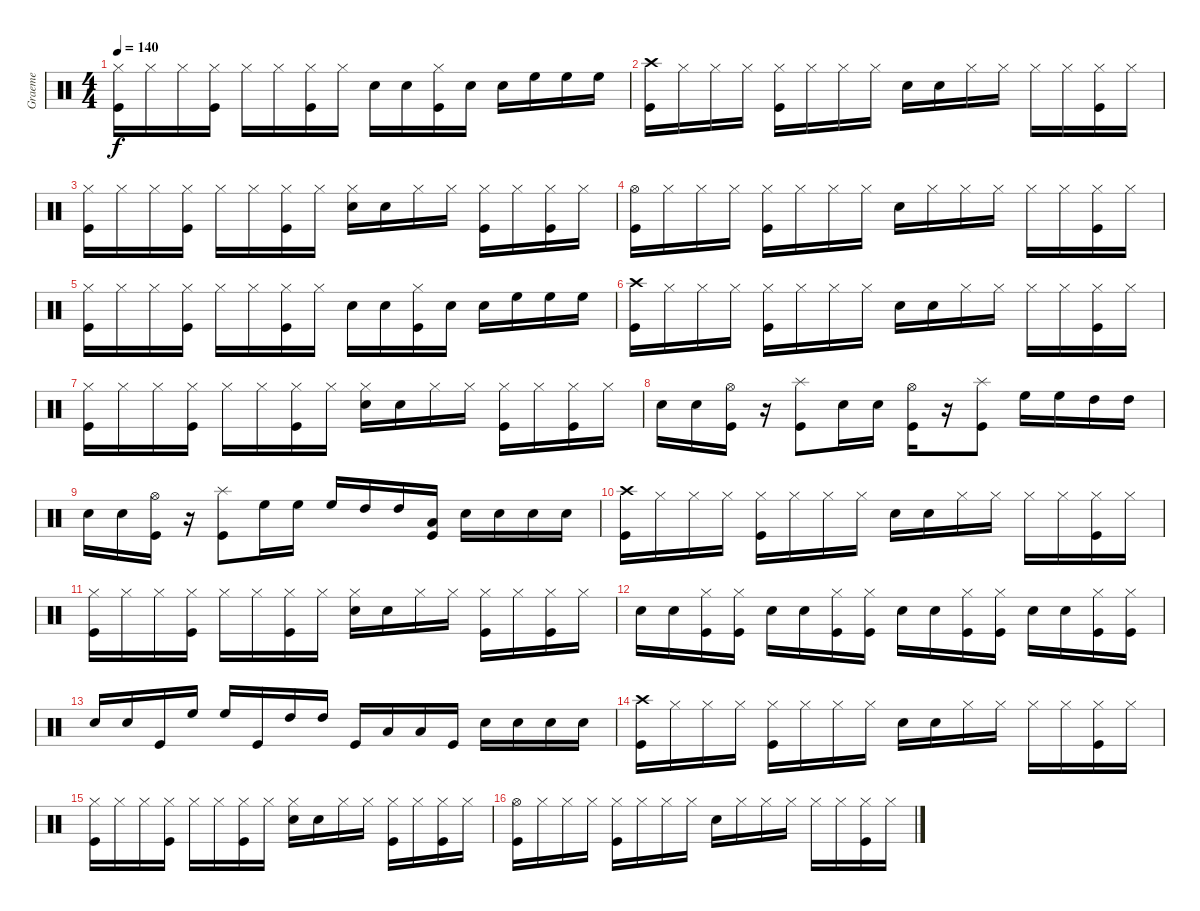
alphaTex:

\track ("Graeme" "Graeme") {instrument percussion}
\staff {score}
\articulation defaults
\ts (4 4)
\tempo 140
\clef neutral
\ks c
("Hi-Hat (closed)" "Kick (hit)").16{dy f} "Hi-Hat (closed)".16 "Hi-Hat (closed)".16 ("Hi-Hat (closed)" "Kick (hit)").16 "Hi-Hat (closed)".16 "Hi-Hat (closed)".16 ("Hi-Hat (closed)" "Kick (hit)").16 "Hi-Hat (closed)".16 "Snare (hit) 2".16 "Snare (hit) 2".16 ("Hi-Hat (closed)" "Kick (hit)").16 "Snare (hit) 2".16 "Snare (hit) 2".16 "High Floor Tom (hit)".16 "High Floor Tom (hit)".16 "High Floor Tom (hit)".16 |
("Crash high (hit)" "Kick (hit)").16 "Hi-Hat (closed)".16 "Hi-Hat (closed)".16 "Hi-Hat (closed)".16 ("Hi-Hat (closed)" "Kick (hit)").16 "Hi-Hat (closed)".16 "Hi-Hat (closed)".16 "Hi-Hat (closed)".16 "Snare (hit) 2".16 "Snare (hit) 2".16 "Hi-Hat (closed)".16 "Hi-Hat (closed)".16 "Hi-Hat (closed)".16 "Hi-Hat (closed)".16 ("Hi-Hat (closed)" "Kick (hit)").16 "Hi-Hat (closed)".16 |
("Hi-Hat (closed)" "Kick (hit)").16 "Hi-Hat (closed)".16 "Hi-Hat (closed)".16 ("Hi-Hat (closed)" "Kick (hit)").16 "Hi-Hat (closed)".16 "Hi-Hat (closed)".16 ("Hi-Hat (closed)" "Kick (hit)").16 "Hi-Hat (closed)".16 ("Hi-Hat (closed)" "Snare (hit) 2").16 "Snare (hit) 2".16 "Hi-Hat (closed)".16 "Hi-Hat (closed)".16 ("Hi-Hat (closed)" "Kick (hit)").16 "Hi-Hat (closed)".16 ("Hi-Hat (closed)" "Kick (hit)").16 "Hi-Hat (closed)".16 |
("Hi-Hat (open)" "Kick (hit)").16 "Hi-Hat (closed)".16 "Hi-Hat (closed)".16 "Hi-Hat (closed)".16 ("Hi-Hat (closed)" "Kick (hit)").16 "Hi-Hat (closed)".16 "Hi-Hat (closed)".16 "Hi-Hat (closed)".16 "Snare (hit) 2".16 "Hi-Hat (closed)".16 "Hi-Hat (closed)".16 "Hi-Hat (closed)".16 "Hi-Hat (closed)".16 "Hi-Hat (closed)".16 ("Hi-Hat (closed)" "Kick (hit)").16 "Hi-Hat (closed)".16 |
("Hi-Hat (closed)" "Kick (hit)").16 "Hi-Hat (closed)".16 "Hi-Hat (closed)".16 ("Hi-Hat (closed)" "Kick (hit)").16 "Hi-Hat (closed)".16 "Hi-Hat (closed)".16 ("Hi-Hat (closed)" "Kick (hit)").16 "Hi-Hat (closed)".16 "Snare (hit) 2".16 "Snare (hit) 2".16 ("Hi-Hat (closed)" "Kick (hit)").16 "Snare (hit) 2".16 "Snare (hit) 2".16 "High Floor Tom (hit)".16 "High Floor Tom (hit)".16 "High Floor Tom (hit)".16 |
("Crash high (hit)" "Kick (hit)").16 "Hi-Hat (closed)".16 "Hi-Hat (closed)".16 "Hi-Hat (closed)".16 ("Hi-Hat (closed)" "Kick (hit)").16 "Hi-Hat (closed)".16 "Hi-Hat (closed)".16 "Hi-Hat (closed)".16 "Snare (hit) 2".16 "Snare (hit) 2".16 "Hi-Hat (closed)".16 "Hi-Hat (closed)".16 "Hi-Hat (closed)".16 "Hi-Hat (closed)".16 ("Hi-Hat (closed)" "Kick (hit)").16 "Hi-Hat (closed)".16 |
("Hi-Hat (closed)" "Kick (hit)").16 "Hi-Hat (closed)".16 "Hi-Hat (closed)".16 ("Hi-Hat (closed)" "Kick (hit)").16 "Hi-Hat (closed)".16 "Hi-Hat (closed)".16 ("Hi-Hat (closed)" "Kick (hit)").16 "Hi-Hat (closed)".16 ("Hi-Hat (closed)" "Snare (hit) 2").16 "Snare (hit) 2".16 "Hi-Hat (closed)".16 "Hi-Hat (closed)".16 ("Hi-Hat (closed)" "Kick (hit)").16 "Hi-Hat (closed)".16 ("Hi-Hat (closed)" "Kick (hit)").16 "Hi-Hat (closed)".16 |
"Snare (hit) 2".16 "Snare (hit) 2".16 ("Hi-Hat (open)" "Kick (hit)").16 r.16 ("Splash (hit)" "Kick (hit)").8 "Snare (hit) 2".16 "Snare (hit) 2".16 ("Hi-Hat (open)" "Kick (hit)").16 r.16 ("Splash (hit)" "Kick (hit)").8 "High Floor Tom (hit)".16 "High Floor Tom (hit)".16 "High Tom (hit)".16 "High Tom (hit)".16 |
"Snare (hit) 2".16 "Snare (hit) 2".16 ("Hi-Hat (open)" "Kick (hit)").16 r.16 ("Splash (hit)" "Kick (hit)").8 "High Floor Tom (hit)".16 "High Floor Tom (hit)".16 "High Floor Tom (hit)".16 "High Tom (hit)".16 "High Tom (hit)".16 ("Low Floor Tom (hit)" "Kick (hit)").16 "Snare (hit) 2".16 "Snare (hit) 2".16 "Snare (hit) 2".16 "Snare (hit) 2".16 |
("Crash high (hit)" "Kick (hit)").16 "Hi-Hat (closed)".16 "Hi-Hat (closed)".16 "Hi-Hat (closed)".16 ("Hi-Hat (closed)" "Kick (hit)").16 "Hi-Hat (closed)".16 "Hi-Hat (closed)".16 "Hi-Hat (closed)".16 "Snare (hit) 2".16 "Snare (hit) 2".16 "Hi-Hat (closed)".16 "Hi-Hat (closed)".16 "Hi-Hat (closed)".16 "Hi-Hat (closed)".16 ("Hi-Hat (closed)" "Kick (hit)").16 "Hi-Hat (closed)".16 |
("Hi-Hat (closed)" "Kick (hit)").16 "Hi-Hat (closed)".16 "Hi-Hat (closed)".16 ("Hi-Hat (closed)" "Kick (hit)").16 "Hi-Hat (closed)".16 "Hi-Hat (closed)".16 ("Hi-Hat (closed)" "Kick (hit)").16 "Hi-Hat (closed)".16 ("Hi-Hat (closed)" "Snare (hit) 2").16 "Snare (hit) 2".16 "Hi-Hat (closed)".16 "Hi-Hat (closed)".16 ("Hi-Hat (closed)" "Kick (hit)").16 "Hi-Hat (closed)".16 ("Hi-Hat (closed)" "Kick (hit)").16 "Hi-Hat (closed)".16 |
"Snare (hit) 2".16 "Snare (hit) 2".16 ("Hi-Hat (closed)" "Kick (hit)").16 ("Hi-Hat (closed)" "Kick (hit)").16 "Snare (hit) 2".16 "Snare (hit) 2".16 ("Hi-Hat (closed)" "Kick (hit)").16 ("Hi-Hat (closed)" "Kick (hit)").16 "Snare (hit) 2".16 "Snare (hit) 2".16 ("Hi-Hat (closed)" "Kick (hit)").16 ("Hi-Hat (closed)" "Kick (hit)").16 "Snare (hit) 2".16 "Snare (hit) 2".16 ("Hi-Hat (closed)" "Kick (hit)").16 ("Hi-Hat (closed)" "Kick (hit)").16 |
"Snare (hit) 2".16 "Snare (hit) 2".16 "Kick (hit)".16 "High Floor Tom (hit)".16 "High Floor Tom (hit)".16 "Kick (hit)".16 "High Tom (hit)".16 "High Tom (hit)".16 "Kick (hit)".16 "Low Floor Tom (hit)".16 "Low Floor Tom (hit)".16 "Kick (hit)".16 "Snare (hit) 2".16 "Snare (hit) 2".16 "Snare (hit) 2".16 "Snare (hit) 2".16 |
("Crash high (hit)" "Kick (hit)").16 "Hi-Hat (closed)".16 "Hi-Hat (closed)".16 "Hi-Hat (closed)".16 ("Hi-Hat (closed)" "Kick (hit)").16 "Hi-Hat (closed)".16 "Hi-Hat (closed)".16 "Hi-Hat (closed)".16 "Snare (hit) 2".16 "Snare (hit) 2".16 "Hi-Hat (closed)".16 "Hi-Hat (closed)".16 "Hi-Hat (closed)".16 "Hi-Hat (closed)".16 ("Hi-Hat (closed)" "Kick (hit)").16 "Hi-Hat (closed)".16 |
("Hi-Hat (closed)" "Kick (hit)").16 "Hi-Hat (closed)".16 "Hi-Hat (closed)".16 ("Hi-Hat (closed)" "Kick (hit)").16 "Hi-Hat (closed)".16 "Hi-Hat (closed)".16 ("Hi-Hat (closed)" "Kick (hit)").16 "Hi-Hat (closed)".16 ("Hi-Hat (closed)" "Snare (hit) 2").16 "Snare (hit) 2".16 "Hi-Hat (closed)".16 "Hi-Hat (closed)".16 ("Hi-Hat (closed)" "Kick (hit)").16 "Hi-Hat (closed)".16 ("Hi-Hat (closed)" "Kick (hit)").16 "Hi-Hat (closed)".16 |
("Hi-Hat (open)" "Kick (hit)").16 "Hi-Hat (closed)".16 "Hi-Hat (closed)".16 "Hi-Hat (closed)".16 ("Hi-Hat (closed)" "Kick (hit)").16 "Hi-Hat (closed)".16 "Hi-Hat (closed)".16 "Hi-Hat (closed)".16 "Snare (hit) 2".16 "Hi-Hat (closed)".16 "Hi-Hat (closed)".16 "Hi-Hat (closed)".16 "Hi-Hat (closed)".16 "Hi-Hat (closed)".16 ("Hi-Hat (closed)" "Kick (hit)").16 "Hi-Hat (closed)".16
